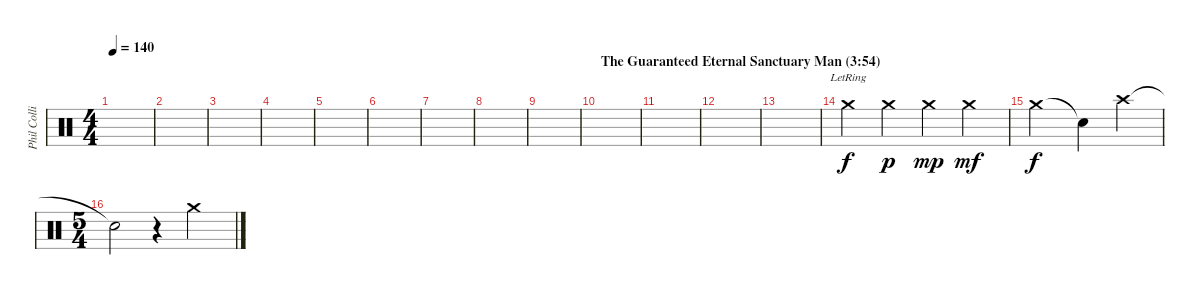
\track ("Phil Collins (drums)" "Phil Colli") {instrument percussion}
\staff {score}
\articulation defaults
\ts (4 4)
\tempo 140
\clef neutral
\ks c
|
|
|
|
|
|
|
|
|
\section ("" "The Guaranteed Eternal Sanctuary Man (3:54)")
|
|
|
|
"Crash medium (hit)"{lr}.4 "Crash medium (hit)".4{dy p} "Crash medium (hit)".4{dy mp} "Crash medium (hit)".4{dy mf} |
"Crash medium (hit)".2{dy f} "Snare (hit)"{t}.4 "Crash high (hit)".4 |
\ts (5 4)
"Snare (hit)"{t}.2 r.4 "Crash medium (hit)".2
